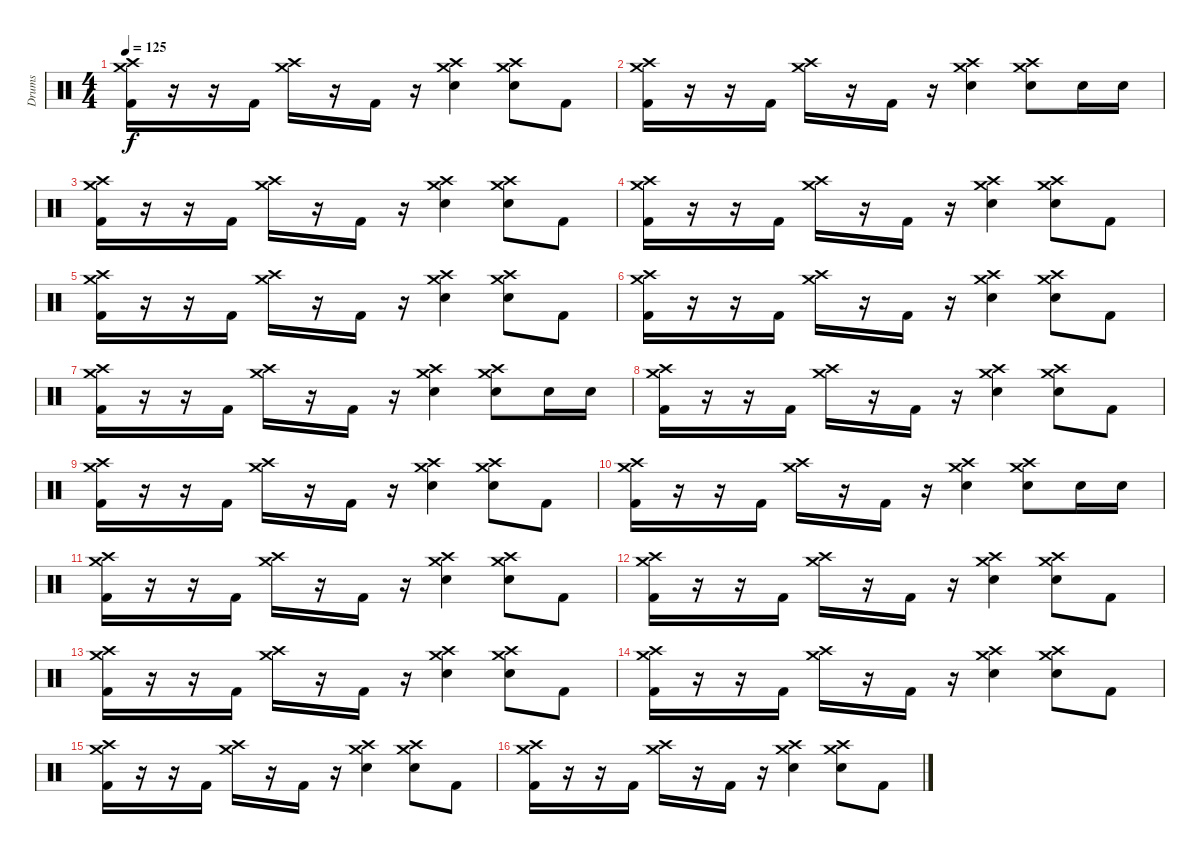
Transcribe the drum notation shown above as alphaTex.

\track ("Drums" "Drums") {instrument percussion}
\staff {score}
\articulation defaults
\ts (4 4)
\tempo 125
\clef neutral
\ks c
("Crash high (hit)" "Crash medium (hit)" "Kick (hit) 2").16{dy f} r.16 r.16 "Kick (hit) 2".16 ("Crash high (hit)" "Crash medium (hit)").16 r.16 "Kick (hit) 2".16 r.16 ("Crash high (hit)" "Crash medium (hit)" "Snare (hit) 2").4 ("Crash high (hit)" "Crash medium (hit)" "Snare (hit) 2").8 "Kick (hit) 2".8 |
("Crash high (hit)" "Crash medium (hit)" "Kick (hit) 2").16 r.16 r.16 "Kick (hit) 2".16 ("Crash high (hit)" "Crash medium (hit)").16 r.16 "Kick (hit) 2".16 r.16 ("Crash high (hit)" "Crash medium (hit)" "Snare (hit) 2").4 ("Crash high (hit)" "Crash medium (hit)" "Snare (hit) 2").8 "Snare (hit) 2".16 "Snare (hit) 2".16 |
("Crash high (hit)" "Crash medium (hit)" "Kick (hit) 2").16 r.16 r.16 "Kick (hit) 2".16 ("Crash high (hit)" "Crash medium (hit)").16 r.16 "Kick (hit) 2".16 r.16 ("Crash high (hit)" "Crash medium (hit)" "Snare (hit) 2").4 ("Crash high (hit)" "Crash medium (hit)" "Snare (hit) 2").8 "Kick (hit) 2".8 |
("Crash high (hit)" "Crash medium (hit)" "Kick (hit) 2").16 r.16 r.16 "Kick (hit) 2".16 ("Crash high (hit)" "Crash medium (hit)").16 r.16 "Kick (hit) 2".16 r.16 ("Crash high (hit)" "Crash medium (hit)" "Snare (hit) 2").4 ("Crash high (hit)" "Crash medium (hit)" "Snare (hit) 2").8 "Kick (hit) 2".8 |
("Crash high (hit)" "Crash medium (hit)" "Kick (hit) 2").16 r.16 r.16 "Kick (hit) 2".16 ("Crash high (hit)" "Crash medium (hit)").16 r.16 "Kick (hit) 2".16 r.16 ("Crash high (hit)" "Crash medium (hit)" "Snare (hit) 2").4 ("Crash high (hit)" "Crash medium (hit)" "Snare (hit) 2").8 "Kick (hit) 2".8 |
("Crash high (hit)" "Crash medium (hit)" "Kick (hit) 2").16 r.16 r.16 "Kick (hit) 2".16 ("Crash high (hit)" "Crash medium (hit)").16 r.16 "Kick (hit) 2".16 r.16 ("Crash high (hit)" "Crash medium (hit)" "Snare (hit) 2").4 ("Crash high (hit)" "Crash medium (hit)" "Snare (hit) 2").8 "Kick (hit) 2".8 |
("Crash high (hit)" "Crash medium (hit)" "Kick (hit) 2").16 r.16 r.16 "Kick (hit) 2".16 ("Crash high (hit)" "Crash medium (hit)").16 r.16 "Kick (hit) 2".16 r.16 ("Crash high (hit)" "Crash medium (hit)" "Snare (hit) 2").4 ("Crash high (hit)" "Crash medium (hit)" "Snare (hit) 2").8 "Snare (hit) 2".16 "Snare (hit) 2".16 |
("Crash high (hit)" "Crash medium (hit)" "Kick (hit) 2").16 r.16 r.16 "Kick (hit) 2".16 ("Crash high (hit)" "Crash medium (hit)").16 r.16 "Kick (hit) 2".16 r.16 ("Crash high (hit)" "Crash medium (hit)" "Snare (hit) 2").4 ("Crash high (hit)" "Crash medium (hit)" "Snare (hit) 2").8 "Kick (hit) 2".8 |
("Crash high (hit)" "Crash medium (hit)" "Kick (hit) 2").16 r.16 r.16 "Kick (hit) 2".16 ("Crash high (hit)" "Crash medium (hit)").16 r.16 "Kick (hit) 2".16 r.16 ("Crash high (hit)" "Crash medium (hit)" "Snare (hit) 2").4 ("Crash high (hit)" "Crash medium (hit)" "Snare (hit) 2").8 "Kick (hit) 2".8 |
("Crash high (hit)" "Crash medium (hit)" "Kick (hit) 2").16 r.16 r.16 "Kick (hit) 2".16 ("Crash high (hit)" "Crash medium (hit)").16 r.16 "Kick (hit) 2".16 r.16 ("Crash high (hit)" "Crash medium (hit)" "Snare (hit) 2").4 ("Crash high (hit)" "Crash medium (hit)" "Snare (hit) 2").8 "Snare (hit) 2".16 "Snare (hit) 2".16 |
("Crash high (hit)" "Crash medium (hit)" "Kick (hit) 2").16 r.16 r.16 "Kick (hit) 2".16 ("Crash high (hit)" "Crash medium (hit)").16 r.16 "Kick (hit) 2".16 r.16 ("Crash high (hit)" "Crash medium (hit)" "Snare (hit) 2").4 ("Crash high (hit)" "Crash medium (hit)" "Snare (hit) 2").8 "Kick (hit) 2".8 |
("Crash high (hit)" "Crash medium (hit)" "Kick (hit) 2").16 r.16 r.16 "Kick (hit) 2".16 ("Crash high (hit)" "Crash medium (hit)").16 r.16 "Kick (hit) 2".16 r.16 ("Crash high (hit)" "Crash medium (hit)" "Snare (hit) 2").4 ("Crash high (hit)" "Crash medium (hit)" "Snare (hit) 2").8 "Kick (hit) 2".8 |
("Crash high (hit)" "Crash medium (hit)" "Kick (hit) 2").16 r.16 r.16 "Kick (hit) 2".16 ("Crash high (hit)" "Crash medium (hit)").16 r.16 "Kick (hit) 2".16 r.16 ("Crash high (hit)" "Crash medium (hit)" "Snare (hit) 2").4 ("Crash high (hit)" "Crash medium (hit)" "Snare (hit) 2").8 "Kick (hit) 2".8 |
("Crash high (hit)" "Crash medium (hit)" "Kick (hit) 2").16 r.16 r.16 "Kick (hit) 2".16 ("Crash high (hit)" "Crash medium (hit)").16 r.16 "Kick (hit) 2".16 r.16 ("Crash high (hit)" "Crash medium (hit)" "Snare (hit) 2").4 ("Crash high (hit)" "Crash medium (hit)" "Snare (hit) 2").8 "Kick (hit) 2".8 |
("Crash high (hit)" "Crash medium (hit)" "Kick (hit) 2").16 r.16 r.16 "Kick (hit) 2".16 ("Crash high (hit)" "Crash medium (hit)").16 r.16 "Kick (hit) 2".16 r.16 ("Crash high (hit)" "Crash medium (hit)" "Snare (hit) 2").4 ("Crash high (hit)" "Crash medium (hit)" "Snare (hit) 2").8 "Kick (hit) 2".8 |
("Crash high (hit)" "Crash medium (hit)" "Kick (hit) 2").16 r.16 r.16 "Kick (hit) 2".16 ("Crash high (hit)" "Crash medium (hit)").16 r.16 "Kick (hit) 2".16 r.16 ("Crash high (hit)" "Crash medium (hit)" "Snare (hit) 2").4 ("Crash high (hit)" "Crash medium (hit)" "Snare (hit) 2").8 "Kick (hit) 2".8
